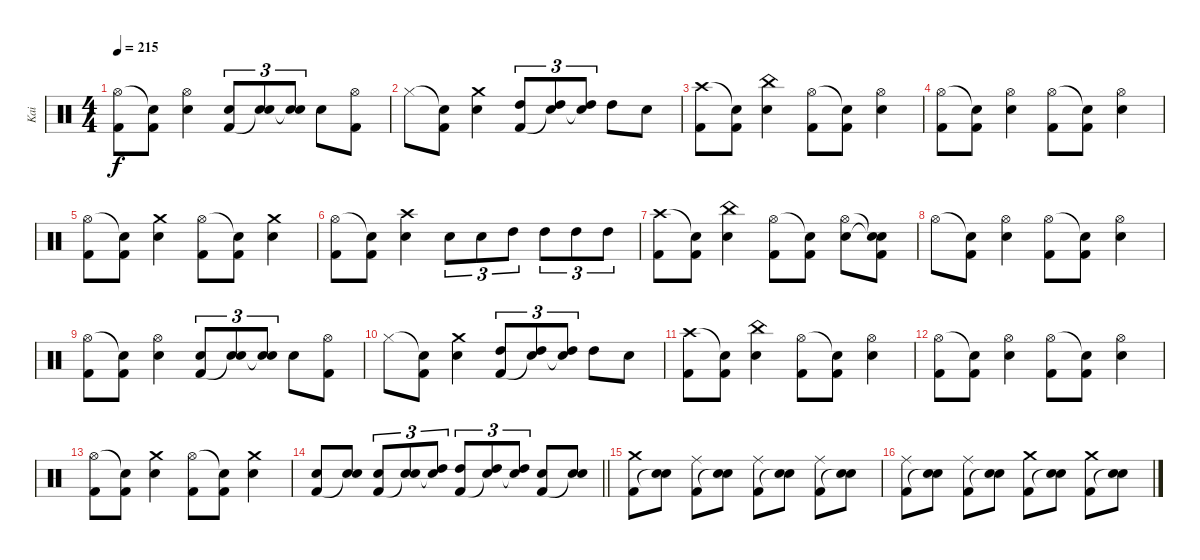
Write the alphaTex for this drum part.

\track ("Kai" "Kai") {instrument percussion}
\staff {score}
\articulation defaults
\ts (4 4)
\tempo 215
\clef neutral
\ks c
("Hi-Hat (open)" "Kick (hit) 2").8{dy f} ("Snare (hit)"{t} "Kick (hit) 2").8 ("Hi-Hat (open)" "Snare (hit) 2").4 ("Snare (hit) 2" "Kick (hit) 2").8{tu (3 2)} ("Snare (hit) 2" "Snare (hit)"{t}).8{tu (3 2)} ("Snare (hit) 2" "Snare (hit)"{t}).8{tu (3 2)} "Snare (hit) 2".8 ("Hi-Hat (open)" "Kick (hit) 2").8 |
"Hi-Hat (closed)".8 ("Snare (hit)"{t} "Kick (hit) 2").8 ("Crash medium (hit)" "Snare (hit) 2").4 ("High Tom (hit)" "Kick (hit) 2").8{tu (3 2)} ("High Tom (hit)" "Snare (hit)"{t}).8{tu (3 2)} ("High Tom (hit)" "Snare (hit)"{t}).8{tu (3 2)} "High Tom (hit)".8 "Snare (hit) 2".8 |
("Crash high (hit)" "Kick (hit) 2").8 ("Snare (hit)"{t} "Kick (hit) 2").8 ("China (hit)" "Snare (hit) 2").4 ("Hi-Hat (open)" "Kick (hit) 2").8 ("Snare (hit)"{t} "Kick (hit) 2").8 ("Hi-Hat (open)" "Snare (hit) 2").4 |
("Hi-Hat (open)" "Kick (hit) 2").8 ("Snare (hit)"{t} "Kick (hit) 2").8 ("Hi-Hat (open)" "Snare (hit) 2").4 ("Hi-Hat (open)" "Kick (hit) 2").8 ("Snare (hit)"{t} "Kick (hit) 2").8 ("Hi-Hat (open)" "Snare (hit) 2").4 |
("Hi-Hat (open)" "Kick (hit) 2").8 ("Snare (hit)"{t} "Kick (hit) 2").8 ("Crash medium (hit)" "Snare (hit) 2").4 ("Hi-Hat (open)" "Kick (hit) 2").8 ("Snare (hit)"{t} "Kick (hit) 2").8 ("Crash medium (hit)" "Snare (hit) 2").4 |
("Hi-Hat (open)" "Kick (hit) 2").8 ("Snare (hit)"{t} "Kick (hit) 2").8 ("Crash high (hit)" "Snare (hit) 2").4 "Snare (hit) 2".8{tu (3 2)} "Snare (hit) 2".8{tu (3 2)} "High Tom (hit)".8{tu (3 2)} "High Tom (hit)".8{tu (3 2)} "High Tom (hit)".8{tu (3 2)} "High Tom (hit)".8{tu (3 2)} |
("Crash high (hit)" "Kick (hit) 2").8 ("Snare (hit)"{t} "Kick (hit) 2").8 ("China (hit)" "Snare (hit) 2").4 ("Hi-Hat (open)" "Kick (hit) 2").8 ("Snare (hit)"{t} "Kick (hit) 2").8 ("Hi-Hat (open)" "Snare (hit) 2").8 ("Snare (hit)"{t} "Snare (hit)"{t} "Kick (hit) 2").8 |
"Hi-Hat (open)".8 ("Snare (hit)"{t} "Kick (hit) 2").8 ("Hi-Hat (open)" "Snare (hit) 2").4 ("Hi-Hat (open)" "Kick (hit) 2").8 ("Snare (hit)"{t} "Kick (hit) 2").8 ("Hi-Hat (open)" "Snare (hit) 2").4 |
("Hi-Hat (open)" "Kick (hit) 2").8 ("Snare (hit)"{t} "Kick (hit) 2").8 ("Hi-Hat (open)" "Snare (hit) 2").4 ("Snare (hit) 2" "Kick (hit) 2").8{tu (3 2)} ("Snare (hit) 2" "Snare (hit)"{t}).8{tu (3 2)} ("Snare (hit) 2" "Snare (hit)"{t}).8{tu (3 2)} "Snare (hit) 2".8 ("Hi-Hat (open)" "Kick (hit) 2").8 |
"Hi-Hat (closed)".8 ("Snare (hit)"{t} "Kick (hit) 2").8 ("Crash medium (hit)" "Snare (hit) 2").4 ("High Tom (hit)" "Kick (hit) 2").8{tu (3 2)} ("High Tom (hit)" "Snare (hit)"{t}).8{tu (3 2)} ("High Tom (hit)" "Snare (hit)"{t}).8{tu (3 2)} "High Tom (hit)".8 "Snare (hit) 2".8 |
("Crash high (hit)" "Kick (hit) 2").8 ("Snare (hit)"{t} "Kick (hit) 2").8 ("China (hit)" "Snare (hit) 2").4 ("Hi-Hat (open)" "Kick (hit) 2").8 ("Snare (hit)"{t} "Kick (hit) 2").8 ("Hi-Hat (open)" "Snare (hit) 2").4 |
("Hi-Hat (open)" "Kick (hit) 2").8 ("Snare (hit)"{t} "Kick (hit) 2").8 ("Hi-Hat (open)" "Snare (hit) 2").4 ("Hi-Hat (open)" "Kick (hit) 2").8 ("Snare (hit)"{t} "Kick (hit) 2").8 ("Hi-Hat (open)" "Snare (hit) 2").4 |
("Hi-Hat (open)" "Kick (hit) 2").8 ("Snare (hit)"{t} "Kick (hit) 2").8 ("Crash medium (hit)" "Snare (hit) 2").4 ("Hi-Hat (open)" "Kick (hit) 2").8 ("Snare (hit)"{t} "Kick (hit) 2").8 ("Crash medium (hit)" "Snare (hit) 2").4 |
\barLineRight lightlight
("Snare (hit) 2" "Kick (hit) 2").8 ("Snare (hit) 2" "Snare (hit)"{t}).8 ("Snare (hit) 2" "Kick (hit) 2").8{tu (3 2)} ("Snare (hit) 2" "Snare (hit)"{t}).8{tu (3 2)} ("High Tom (hit)" "Snare (hit)"{t}).8{tu (3 2)} ("High Tom (hit)" "Kick (hit) 2").8{tu (3 2)} ("High Tom (hit)" "Snare (hit)"{t}).8{tu (3 2)} ("High Tom (hit)" "Snare (hit)"{t}).8{tu (3 2)} ("Snare (hit) 2" "Kick (hit) 2").8 ("Snare (hit) 2" "Snare (hit)"{t}).8 |
("Crash medium (hit)" "Kick (hit) 2").8 ("Snare (hit) 2" "Snare (hit)"{t}).8 ("Ride (middle)" "Kick (hit) 2").8 ("Snare (hit) 2" "Snare (hit)"{t}).8 ("Ride (middle)" "Kick (hit) 2").8 ("Snare (hit) 2" "Snare (hit)"{t}).8 ("Ride (middle)" "Kick (hit) 2").8 ("Snare (hit) 2" "Snare (hit)"{t}).8 |
("Ride (middle)" "Kick (hit) 2").8 ("Snare (hit) 2" "Snare (hit)"{t}).8 ("Ride (middle)" "Kick (hit) 2").8 ("Snare (hit) 2" "Snare (hit)"{t}).8 ("Crash medium (hit)" "Kick (hit) 2").8 ("Snare (hit) 2" "Snare (hit)"{t}).8 ("Crash medium (hit)" "Kick (hit) 2").8 ("Snare (hit) 2" "Snare (hit)"{t}).8
